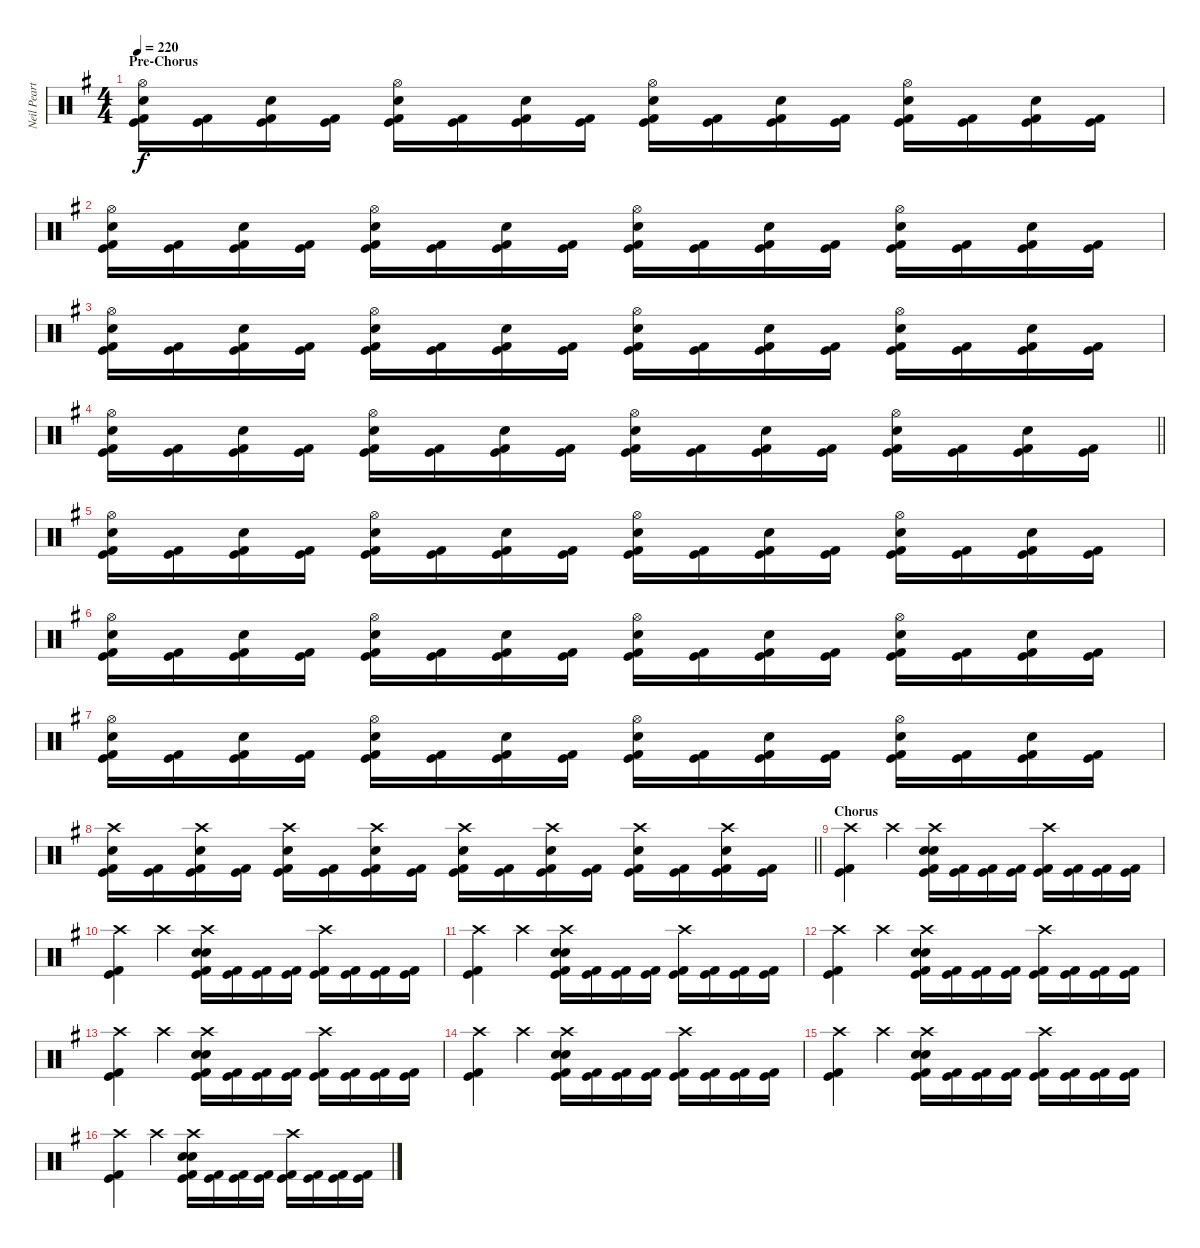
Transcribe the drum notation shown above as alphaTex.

\track ("Neil Peart" "Neil Peart") {instrument percussion}
\staff {score}
\articulation defaults
\ts (4 4)
\section ("" "Pre-Chorus")
\tempo 220
\clef neutral
\ks g
("Hi-Hat (open)" "Kick (hit)" "Kick (hit) 2" "Snare (hit) 2").16{dy f balance 8} ("Kick (hit)" "Kick (hit) 2").16 ("Kick (hit)" "Kick (hit) 2" "Snare (hit) 2").16 ("Kick (hit)" "Kick (hit) 2").16 ("Hi-Hat (open)" "Kick (hit)" "Kick (hit) 2" "Snare (hit) 2").16 ("Kick (hit)" "Kick (hit) 2").16 ("Kick (hit)" "Kick (hit) 2" "Snare (hit) 2").16 ("Kick (hit)" "Kick (hit) 2").16 ("Hi-Hat (open)" "Kick (hit)" "Kick (hit) 2" "Snare (hit) 2").16 ("Kick (hit)" "Kick (hit) 2").16 ("Kick (hit)" "Kick (hit) 2" "Snare (hit) 2").16 ("Kick (hit)" "Kick (hit) 2").16 ("Hi-Hat (open)" "Kick (hit)" "Kick (hit) 2" "Snare (hit) 2").16 ("Kick (hit)" "Kick (hit) 2").16 ("Kick (hit)" "Kick (hit) 2" "Snare (hit) 2").16 ("Kick (hit)" "Kick (hit) 2").16 |
("Hi-Hat (open)" "Kick (hit)" "Kick (hit) 2" "Snare (hit) 2").16{balance 8} ("Kick (hit)" "Kick (hit) 2").16 ("Kick (hit)" "Kick (hit) 2" "Snare (hit) 2").16 ("Kick (hit)" "Kick (hit) 2").16 ("Hi-Hat (open)" "Kick (hit)" "Kick (hit) 2" "Snare (hit) 2").16 ("Kick (hit)" "Kick (hit) 2").16 ("Kick (hit)" "Kick (hit) 2" "Snare (hit) 2").16 ("Kick (hit)" "Kick (hit) 2").16 ("Hi-Hat (open)" "Kick (hit)" "Kick (hit) 2" "Snare (hit) 2").16 ("Kick (hit)" "Kick (hit) 2").16 ("Kick (hit)" "Kick (hit) 2" "Snare (hit) 2").16 ("Kick (hit)" "Kick (hit) 2").16 ("Hi-Hat (open)" "Kick (hit)" "Kick (hit) 2" "Snare (hit) 2").16 ("Kick (hit)" "Kick (hit) 2").16 ("Kick (hit)" "Kick (hit) 2" "Snare (hit) 2").16 ("Kick (hit)" "Kick (hit) 2").16 |
("Hi-Hat (open)" "Kick (hit)" "Kick (hit) 2" "Snare (hit) 2").16{balance 8} ("Kick (hit)" "Kick (hit) 2").16 ("Kick (hit)" "Kick (hit) 2" "Snare (hit) 2").16 ("Kick (hit)" "Kick (hit) 2").16 ("Hi-Hat (open)" "Kick (hit)" "Kick (hit) 2" "Snare (hit) 2").16 ("Kick (hit)" "Kick (hit) 2").16 ("Kick (hit)" "Kick (hit) 2" "Snare (hit) 2").16 ("Kick (hit)" "Kick (hit) 2").16 ("Hi-Hat (open)" "Kick (hit)" "Kick (hit) 2" "Snare (hit) 2").16 ("Kick (hit)" "Kick (hit) 2").16 ("Kick (hit)" "Kick (hit) 2" "Snare (hit) 2").16 ("Kick (hit)" "Kick (hit) 2").16 ("Hi-Hat (open)" "Kick (hit)" "Kick (hit) 2" "Snare (hit) 2").16 ("Kick (hit)" "Kick (hit) 2").16 ("Kick (hit)" "Kick (hit) 2" "Snare (hit) 2").16 ("Kick (hit)" "Kick (hit) 2").16 |
\barLineRight lightlight
("Hi-Hat (open)" "Kick (hit)" "Kick (hit) 2" "Snare (hit) 2").16{balance 8} ("Kick (hit)" "Kick (hit) 2").16 ("Kick (hit)" "Kick (hit) 2" "Snare (hit) 2").16 ("Kick (hit)" "Kick (hit) 2").16 ("Hi-Hat (open)" "Kick (hit)" "Kick (hit) 2" "Snare (hit) 2").16 ("Kick (hit)" "Kick (hit) 2").16 ("Kick (hit)" "Kick (hit) 2" "Snare (hit) 2").16 ("Kick (hit)" "Kick (hit) 2").16 ("Hi-Hat (open)" "Kick (hit)" "Kick (hit) 2" "Snare (hit) 2").16 ("Kick (hit)" "Kick (hit) 2").16 ("Kick (hit)" "Kick (hit) 2" "Snare (hit) 2").16 ("Kick (hit)" "Kick (hit) 2").16 ("Hi-Hat (open)" "Kick (hit)" "Kick (hit) 2" "Snare (hit) 2").16 ("Kick (hit)" "Kick (hit) 2").16 ("Kick (hit)" "Kick (hit) 2" "Snare (hit) 2").16 ("Kick (hit)" "Kick (hit) 2").16 |
("Hi-Hat (open)" "Kick (hit)" "Kick (hit) 2" "Snare (hit) 2").16{balance 8} ("Kick (hit)" "Kick (hit) 2").16 ("Kick (hit)" "Kick (hit) 2" "Snare (hit) 2").16 ("Kick (hit)" "Kick (hit) 2").16 ("Hi-Hat (open)" "Kick (hit)" "Kick (hit) 2" "Snare (hit) 2").16 ("Kick (hit)" "Kick (hit) 2").16 ("Kick (hit)" "Kick (hit) 2" "Snare (hit) 2").16 ("Kick (hit)" "Kick (hit) 2").16 ("Hi-Hat (open)" "Kick (hit)" "Kick (hit) 2" "Snare (hit) 2").16 ("Kick (hit)" "Kick (hit) 2").16 ("Kick (hit)" "Kick (hit) 2" "Snare (hit) 2").16 ("Kick (hit)" "Kick (hit) 2").16 ("Hi-Hat (open)" "Kick (hit)" "Kick (hit) 2" "Snare (hit) 2").16 ("Kick (hit)" "Kick (hit) 2").16 ("Kick (hit)" "Kick (hit) 2" "Snare (hit) 2").16 ("Kick (hit)" "Kick (hit) 2").16 |
("Hi-Hat (open)" "Kick (hit)" "Kick (hit) 2" "Snare (hit) 2").16{balance 8} ("Kick (hit)" "Kick (hit) 2").16 ("Kick (hit)" "Kick (hit) 2" "Snare (hit) 2").16 ("Kick (hit)" "Kick (hit) 2").16 ("Hi-Hat (open)" "Kick (hit)" "Kick (hit) 2" "Snare (hit) 2").16 ("Kick (hit)" "Kick (hit) 2").16 ("Kick (hit)" "Kick (hit) 2" "Snare (hit) 2").16 ("Kick (hit)" "Kick (hit) 2").16 ("Hi-Hat (open)" "Kick (hit)" "Kick (hit) 2" "Snare (hit) 2").16 ("Kick (hit)" "Kick (hit) 2").16 ("Kick (hit)" "Kick (hit) 2" "Snare (hit) 2").16 ("Kick (hit)" "Kick (hit) 2").16 ("Hi-Hat (open)" "Kick (hit)" "Kick (hit) 2" "Snare (hit) 2").16 ("Kick (hit)" "Kick (hit) 2").16 ("Kick (hit)" "Kick (hit) 2" "Snare (hit) 2").16 ("Kick (hit)" "Kick (hit) 2").16 |
("Hi-Hat (open)" "Kick (hit)" "Kick (hit) 2" "Snare (hit) 2").16{balance 8} ("Kick (hit)" "Kick (hit) 2").16 ("Kick (hit)" "Kick (hit) 2" "Snare (hit) 2").16 ("Kick (hit)" "Kick (hit) 2").16 ("Hi-Hat (open)" "Kick (hit)" "Kick (hit) 2" "Snare (hit) 2").16 ("Kick (hit)" "Kick (hit) 2").16 ("Kick (hit)" "Kick (hit) 2" "Snare (hit) 2").16 ("Kick (hit)" "Kick (hit) 2").16 ("Hi-Hat (open)" "Kick (hit)" "Kick (hit) 2" "Snare (hit) 2").16 ("Kick (hit)" "Kick (hit) 2").16 ("Kick (hit)" "Kick (hit) 2" "Snare (hit) 2").16 ("Kick (hit)" "Kick (hit) 2").16 ("Hi-Hat (open)" "Kick (hit)" "Kick (hit) 2" "Snare (hit) 2").16 ("Kick (hit)" "Kick (hit) 2").16 ("Kick (hit)" "Kick (hit) 2" "Snare (hit) 2").16 ("Kick (hit)" "Kick (hit) 2").16 |
\barLineRight lightlight
("Crash high (hit)" "Kick (hit)" "Kick (hit) 2" "Snare (hit) 2").16{balance 8} ("Kick (hit)" "Kick (hit) 2").16 ("Crash high (hit)" "Kick (hit)" "Kick (hit) 2" "Snare (hit) 2").16 ("Kick (hit)" "Kick (hit) 2").16 ("Crash high (hit)" "Kick (hit)" "Kick (hit) 2" "Snare (hit) 2").16 ("Kick (hit)" "Kick (hit) 2").16 ("Crash high (hit)" "Kick (hit)" "Kick (hit) 2" "Snare (hit) 2").16 ("Kick (hit)" "Kick (hit) 2").16 ("Crash high (hit)" "Kick (hit)" "Kick (hit) 2" "Snare (hit) 2").16 ("Kick (hit)" "Kick (hit) 2").16 ("Crash high (hit)" "Kick (hit)" "Kick (hit) 2" "Snare (hit) 2").16 ("Kick (hit)" "Kick (hit) 2").16 ("Crash high (hit)" "Kick (hit)" "Kick (hit) 2" "Snare (hit) 2").16 ("Kick (hit)" "Kick (hit) 2").16 ("Crash high (hit)" "Kick (hit)" "Kick (hit) 2" "Snare (hit) 2").16 ("Kick (hit)" "Kick (hit) 2").16 |
\section ("" "Chorus")
("Crash high (hit)" "Kick (hit)" "Kick (hit) 2").4 "Crash high (hit)".4 ("Snare (hit) 2" "Crash high (hit)" "Snare (hit) 2" "Kick (hit)" "Kick (hit) 2").16 ("Kick (hit)" "Kick (hit) 2").16 ("Kick (hit)" "Kick (hit) 2").16 ("Kick (hit)" "Kick (hit) 2").16 ("Crash high (hit)" "Kick (hit)" "Kick (hit) 2").16 ("Kick (hit)" "Kick (hit) 2").16 ("Kick (hit)" "Kick (hit) 2").16 ("Kick (hit)" "Kick (hit) 2").16 |
("Crash high (hit)" "Kick (hit)" "Kick (hit) 2").4 "Crash high (hit)".4 ("Snare (hit) 2" "Crash high (hit)" "Snare (hit) 2" "Kick (hit)" "Kick (hit) 2").16 ("Kick (hit)" "Kick (hit) 2").16 ("Kick (hit)" "Kick (hit) 2").16 ("Kick (hit)" "Kick (hit) 2").16 ("Crash high (hit)" "Kick (hit)" "Kick (hit) 2").16 ("Kick (hit)" "Kick (hit) 2").16 ("Kick (hit)" "Kick (hit) 2").16 ("Kick (hit)" "Kick (hit) 2").16 |
("Crash high (hit)" "Kick (hit)" "Kick (hit) 2").4 "Crash high (hit)".4 ("Snare (hit) 2" "Crash high (hit)" "Snare (hit) 2" "Kick (hit)" "Kick (hit) 2").16 ("Kick (hit)" "Kick (hit) 2").16 ("Kick (hit)" "Kick (hit) 2").16 ("Kick (hit)" "Kick (hit) 2").16 ("Crash high (hit)" "Kick (hit)" "Kick (hit) 2").16 ("Kick (hit)" "Kick (hit) 2").16 ("Kick (hit)" "Kick (hit) 2").16 ("Kick (hit)" "Kick (hit) 2").16 |
("Crash high (hit)" "Kick (hit)" "Kick (hit) 2").4 "Crash high (hit)".4 ("Snare (hit) 2" "Crash high (hit)" "Snare (hit) 2" "Kick (hit)" "Kick (hit) 2").16 ("Kick (hit)" "Kick (hit) 2").16 ("Kick (hit)" "Kick (hit) 2").16 ("Kick (hit)" "Kick (hit) 2").16 ("Crash high (hit)" "Kick (hit)" "Kick (hit) 2").16 ("Kick (hit)" "Kick (hit) 2").16 ("Kick (hit)" "Kick (hit) 2").16 ("Kick (hit)" "Kick (hit) 2").16 |
("Crash high (hit)" "Kick (hit)" "Kick (hit) 2").4 "Crash high (hit)".4 ("Snare (hit) 2" "Crash high (hit)" "Snare (hit) 2" "Kick (hit)" "Kick (hit) 2").16 ("Kick (hit)" "Kick (hit) 2").16 ("Kick (hit)" "Kick (hit) 2").16 ("Kick (hit)" "Kick (hit) 2").16 ("Crash high (hit)" "Kick (hit)" "Kick (hit) 2").16 ("Kick (hit)" "Kick (hit) 2").16 ("Kick (hit)" "Kick (hit) 2").16 ("Kick (hit)" "Kick (hit) 2").16 |
("Crash high (hit)" "Kick (hit)" "Kick (hit) 2").4 "Crash high (hit)".4 ("Snare (hit) 2" "Crash high (hit)" "Snare (hit) 2" "Kick (hit)" "Kick (hit) 2").16 ("Kick (hit)" "Kick (hit) 2").16 ("Kick (hit)" "Kick (hit) 2").16 ("Kick (hit)" "Kick (hit) 2").16 ("Crash high (hit)" "Kick (hit)" "Kick (hit) 2").16 ("Kick (hit)" "Kick (hit) 2").16 ("Kick (hit)" "Kick (hit) 2").16 ("Kick (hit)" "Kick (hit) 2").16 |
("Crash high (hit)" "Kick (hit)" "Kick (hit) 2").4 "Crash high (hit)".4 ("Snare (hit) 2" "Crash high (hit)" "Snare (hit) 2" "Kick (hit)" "Kick (hit) 2").16 ("Kick (hit)" "Kick (hit) 2").16 ("Kick (hit)" "Kick (hit) 2").16 ("Kick (hit)" "Kick (hit) 2").16 ("Crash high (hit)" "Kick (hit)" "Kick (hit) 2").16 ("Kick (hit)" "Kick (hit) 2").16 ("Kick (hit)" "Kick (hit) 2").16 ("Kick (hit)" "Kick (hit) 2").16 |
("Crash high (hit)" "Kick (hit)" "Kick (hit) 2").4 "Crash high (hit)".4 ("Snare (hit) 2" "Crash high (hit)" "Snare (hit) 2" "Kick (hit)" "Kick (hit) 2").16 ("Kick (hit)" "Kick (hit) 2").16 ("Kick (hit)" "Kick (hit) 2").16 ("Kick (hit)" "Kick (hit) 2").16 ("Crash high (hit)" "Kick (hit)" "Kick (hit) 2").16 ("Kick (hit)" "Kick (hit) 2").16 ("Kick (hit)" "Kick (hit) 2").16 ("Kick (hit)" "Kick (hit) 2").16
